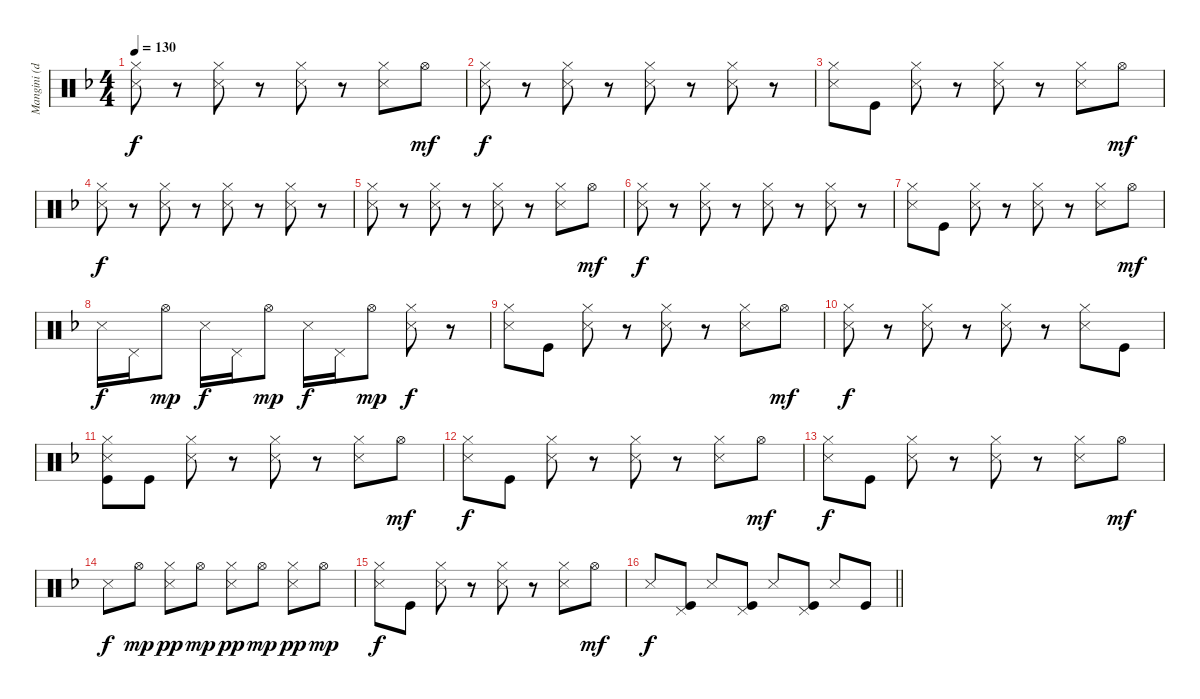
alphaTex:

\track ("Mangini (drums)" "Mangini (d") {instrument percussion}
\staff {score}
\articulation defaults
\ts (4 4)
\tempo 130
\clef neutral
\ks dminor
("Hi-Hat (closed)" "Snare (side stick) 3").8{dy f} r.8 ("Hi-Hat (closed)" "Snare (side stick) 3").8 r.8 ("Hi-Hat (closed)" "Snare (side stick) 3").8 r.8 ("Hi-Hat (closed)" "Snare (side stick) 3").8 "Hi-Hat (open)".8{dy mf} |
("Hi-Hat (closed)" "Snare (side stick) 3").8{dy f} r.8 ("Hi-Hat (closed)" "Snare (side stick) 3").8 r.8 ("Hi-Hat (closed)" "Snare (side stick) 3").8 r.8 ("Hi-Hat (closed)" "Snare (side stick) 3").8 r.8 |
("Hi-Hat (closed)" "Snare (side stick) 3").8 "Kick (hit)".8 ("Hi-Hat (closed)" "Snare (side stick) 3").8 r.8 ("Hi-Hat (closed)" "Snare (side stick) 3").8 r.8 ("Hi-Hat (closed)" "Snare (side stick) 3").8 "Hi-Hat (open)".8{dy mf} |
("Hi-Hat (closed)" "Snare (side stick) 3").8{dy f} r.8 ("Hi-Hat (closed)" "Snare (side stick) 3").8 r.8 ("Hi-Hat (closed)" "Snare (side stick) 3").8 r.8 ("Hi-Hat (closed)" "Snare (side stick) 3").8 r.8 |
("Hi-Hat (closed)" "Snare (side stick) 3").8 r.8 ("Hi-Hat (closed)" "Snare (side stick) 3").8 r.8 ("Hi-Hat (closed)" "Snare (side stick) 3").8 r.8 ("Hi-Hat (closed)" "Snare (side stick) 3").8 "Hi-Hat (open)".8{dy mf} |
("Hi-Hat (closed)" "Snare (side stick) 3").8{dy f} r.8 ("Hi-Hat (closed)" "Snare (side stick) 3").8 r.8 ("Hi-Hat (closed)" "Snare (side stick) 3").8 r.8 ("Hi-Hat (closed)" "Snare (side stick) 3").8 r.8 |
("Hi-Hat (closed)" "Snare (side stick) 3").8 "Kick (hit)".8 ("Hi-Hat (closed)" "Snare (side stick) 3").8 r.8 ("Hi-Hat (closed)" "Snare (side stick) 3").8 r.8 ("Hi-Hat (closed)" "Snare (side stick) 3").8 "Hi-Hat (open)".8{dy mf} |
"Snare (side stick) 3".16{dy f} "Pedal Hi-Hat (hit)".16 "Hi-Hat (open)".8{dy mp} "Snare (side stick) 3".16{dy f} "Pedal Hi-Hat (hit)".16 "Hi-Hat (open)".8{dy mp} "Snare (side stick) 3".16{dy f} "Pedal Hi-Hat (hit)".16 "Hi-Hat (open)".8{dy mp} ("Hi-Hat (closed)" "Snare (side stick) 3").8{dy f} r.8 |
("Hi-Hat (closed)" "Snare (side stick) 3").8 "Kick (hit)".8 ("Hi-Hat (closed)" "Snare (side stick) 3").8 r.8 ("Hi-Hat (closed)" "Snare (side stick) 3").8 r.8 ("Hi-Hat (closed)" "Snare (side stick) 3").8 "Hi-Hat (open)".8{dy mf} |
("Hi-Hat (closed)" "Snare (side stick) 3").8{dy f} r.8 ("Hi-Hat (closed)" "Snare (side stick) 3").8 r.8 ("Hi-Hat (closed)" "Snare (side stick) 3").8 r.8 ("Hi-Hat (closed)" "Snare (side stick) 3").8 "Kick (hit)".8 |
("Hi-Hat (closed)" "Snare (side stick) 3" "Kick (hit)").8 "Kick (hit)".8 ("Hi-Hat (closed)" "Snare (side stick) 3").8 r.8 ("Hi-Hat (closed)" "Snare (side stick) 3").8 r.8 ("Hi-Hat (closed)" "Snare (side stick) 3").8 "Hi-Hat (open)".8{dy mf} |
("Hi-Hat (closed)" "Snare (side stick) 3").8{dy f} "Kick (hit)".8 ("Hi-Hat (closed)" "Snare (side stick) 3").8 r.8 ("Hi-Hat (closed)" "Snare (side stick) 3").8 r.8 ("Hi-Hat (closed)" "Snare (side stick) 3").8 "Hi-Hat (open)".8{dy mf} |
("Hi-Hat (closed)" "Snare (side stick) 3").8{dy f} "Kick (hit)".8 ("Hi-Hat (closed)" "Snare (side stick) 3").8 r.8 ("Hi-Hat (closed)" "Snare (side stick) 3").8 r.8 ("Hi-Hat (closed)" "Snare (side stick) 3").8 "Hi-Hat (open)".8{dy mf} |
"Snare (side stick) 3".8{dy f} "Hi-Hat (open)".8{dy mp} ("Hi-Hat (closed)" "Snare (side stick) 3").8{dy pp} "Hi-Hat (open)".8{dy mp} ("Hi-Hat (closed)" "Snare (side stick) 3").8{dy pp} "Hi-Hat (open)".8{dy mp} ("Hi-Hat (closed)" "Snare (side stick) 3").8{dy pp} "Hi-Hat (open)".8{dy mp} |
("Hi-Hat (closed)" "Snare (side stick) 3").8{dy f} "Kick (hit)".8 ("Hi-Hat (closed)" "Snare (side stick) 3").8 r.8 ("Hi-Hat (closed)" "Snare (side stick) 3").8 r.8 ("Hi-Hat (closed)" "Snare (side stick) 3").8 "Hi-Hat (open)".8{dy mf} |
\barLineRight lightlight "Snare (side stick) 3".8{dy f}
("Pedal Hi-Hat (hit)" "Kick (hit)").8 "Snare (side stick) 3".8 ("Pedal Hi-Hat (hit)" "Kick (hit)").8 "Snare (side stick) 3".8 ("Pedal Hi-Hat (hit)" "Kick (hit)").8 "Snare (side stick) 3".8 "Kick (hit)".8
